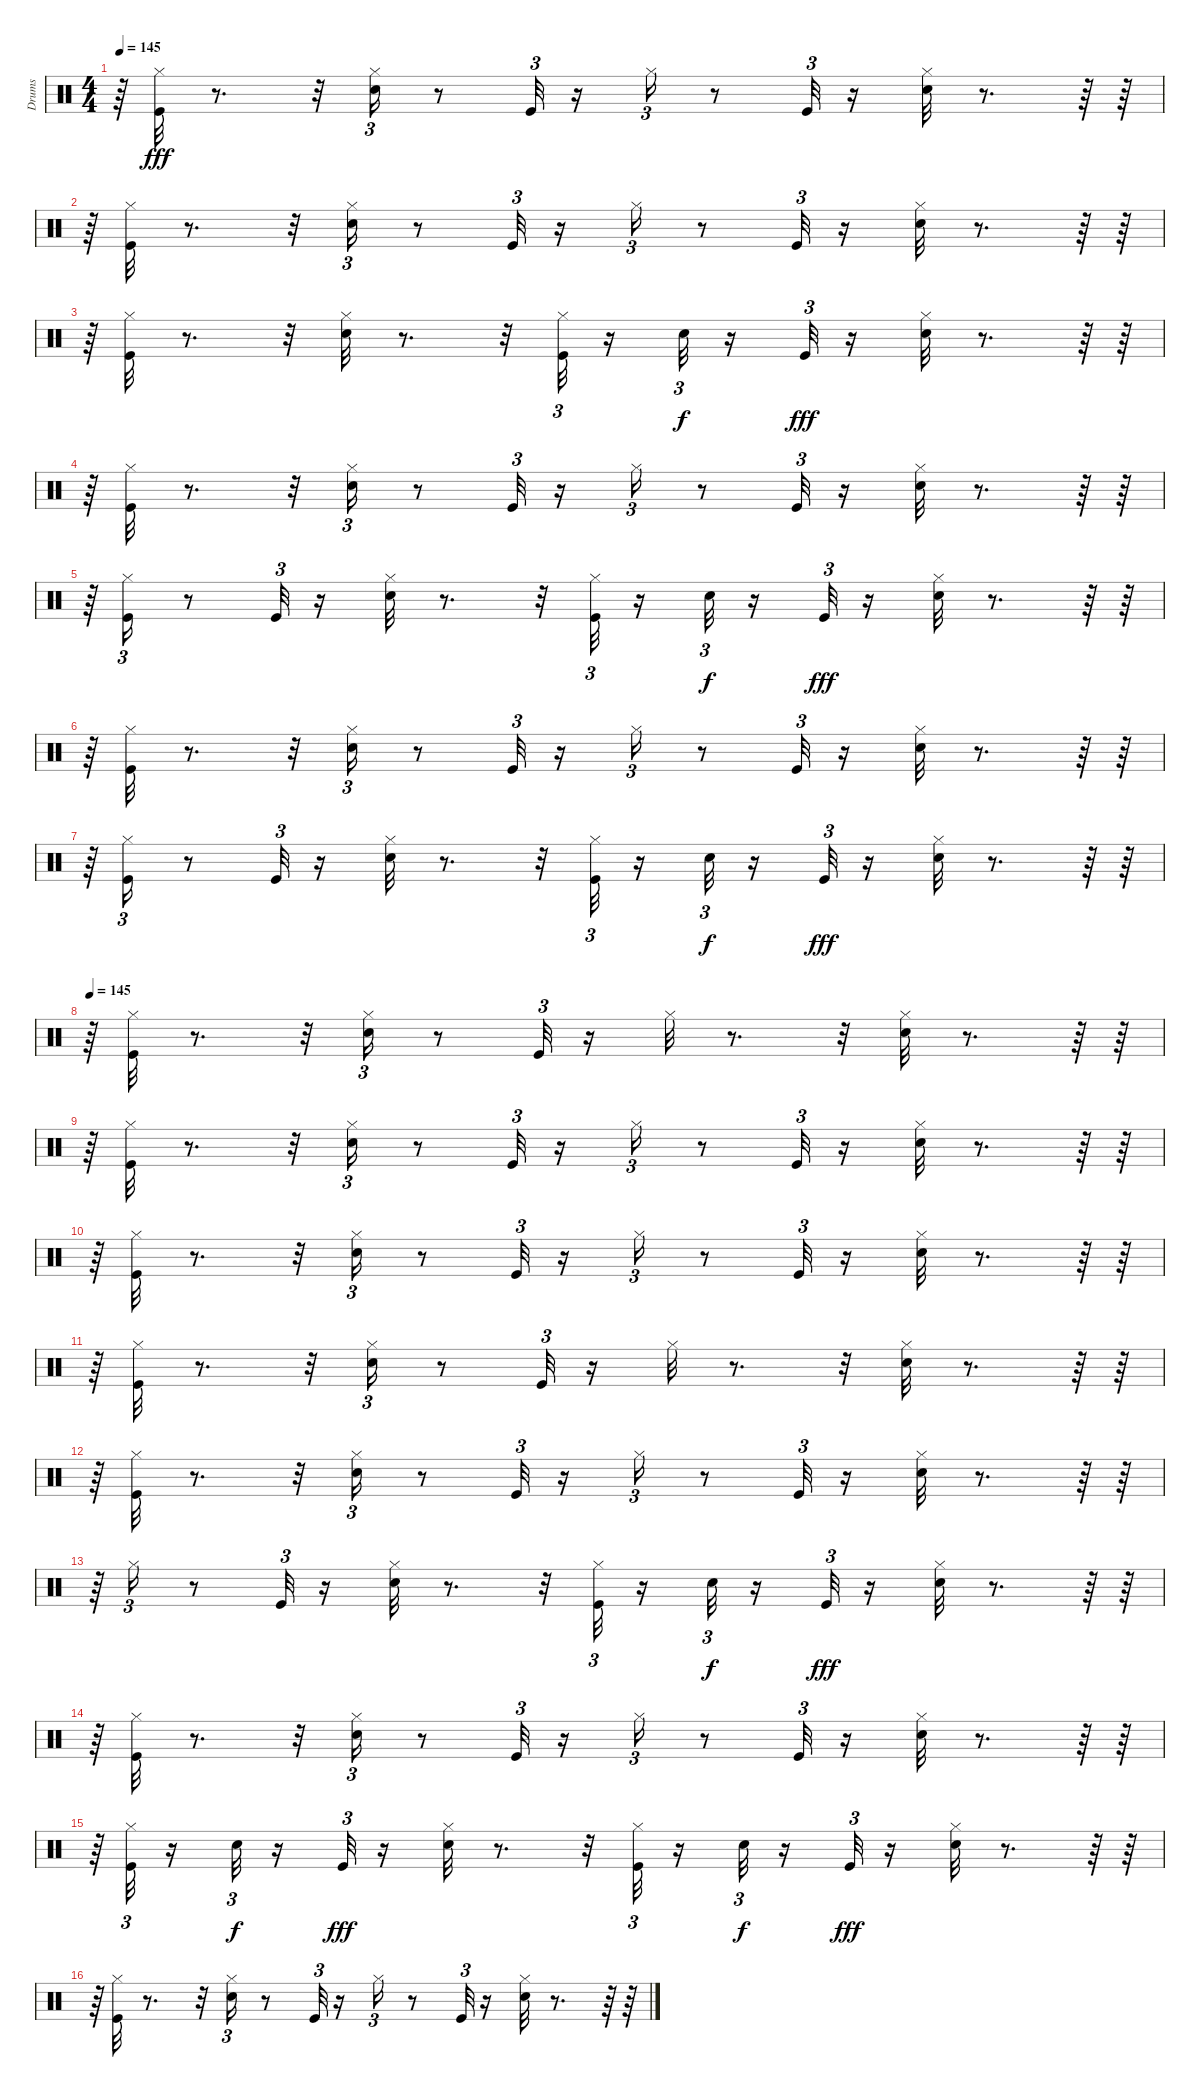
\track ("Drums" "Drums") {instrument percussion}
\staff {score}
\articulation defaults
\ts (4 4)
\tempo 145
\clef neutral
\ks c
r.64{dy fff} ("Kick (hit)" "Hi-Hat (closed)").32 r.8{d} r.32 ("Electric Snare (hit)" "Hi-Hat (closed)").16{tu (3 2)} r.8 "Kick (hit)".32{tu (3 2)} r.16 "Hi-Hat (closed)".16{tu (3 2)} r.8 "Kick (hit)".32{tu (3 2)} r.16 ("Electric Snare (hit)" "Hi-Hat (closed)").32 r.8{d} r.64 r.64 |
r.64 ("Kick (hit)" "Hi-Hat (closed)").32 r.8{d} r.32 ("Electric Snare (hit)" "Hi-Hat (closed)").16{tu (3 2)} r.8 "Kick (hit)".32{tu (3 2)} r.16 "Hi-Hat (closed)".16{tu (3 2)} r.8 "Kick (hit)".32{tu (3 2)} r.16 ("Electric Snare (hit)" "Hi-Hat (closed)").32 r.8{d} r.64 r.64 |
r.64 ("Kick (hit)" "Hi-Hat (closed)").32 r.8{d} r.32 ("Electric Snare (hit)" "Hi-Hat (closed)").32 r.8{d} r.32 ("Kick (hit)" "Hi-Hat (closed)").32{tu (3 2)} r.16 "Electric Snare (hit)".32{tu (3 2) dy f} r.16 "Kick (hit)".32{tu (3 2) dy fff} r.16 ("Electric Snare (hit)" "Hi-Hat (closed)").32 r.8{d} r.64 r.64 |
r.64 ("Kick (hit)" "Hi-Hat (closed)").32 r.8{d} r.32 ("Electric Snare (hit)" "Hi-Hat (closed)").16{tu (3 2)} r.8 "Kick (hit)".32{tu (3 2)} r.16 "Hi-Hat (closed)".16{tu (3 2)} r.8 "Kick (hit)".32{tu (3 2)} r.16 ("Electric Snare (hit)" "Hi-Hat (closed)").32 r.8{d} r.64 r.64 |
r.64 ("Kick (hit)" "Hi-Hat (closed)").16{tu (3 2)} r.8 "Kick (hit)".32{tu (3 2)} r.16 ("Electric Snare (hit)" "Hi-Hat (closed)").32 r.8{d} r.32 ("Kick (hit)" "Hi-Hat (closed)").32{tu (3 2)} r.16 "Electric Snare (hit)".32{tu (3 2) dy f} r.16 "Kick (hit)".32{tu (3 2) dy fff} r.16 ("Electric Snare (hit)" "Hi-Hat (closed)").32 r.8{d} r.64 r.64 |
r.64 ("Kick (hit)" "Hi-Hat (closed)").32 r.8{d} r.32 ("Electric Snare (hit)" "Hi-Hat (closed)").16{tu (3 2)} r.8 "Kick (hit)".32{tu (3 2)} r.16 "Hi-Hat (closed)".16{tu (3 2)} r.8 "Kick (hit)".32{tu (3 2)} r.16 ("Electric Snare (hit)" "Hi-Hat (closed)").32 r.8{d} r.64 r.64 |
r.64 ("Kick (hit)" "Hi-Hat (closed)").16{tu (3 2)} r.8 "Kick (hit)".32{tu (3 2)} r.16 ("Electric Snare (hit)" "Hi-Hat (closed)").32 r.8{d} r.32 ("Kick (hit)" "Hi-Hat (closed)").32{tu (3 2)} r.16 "Electric Snare (hit)".32{tu (3 2) dy f} r.16 "Kick (hit)".32{tu (3 2) dy fff} r.16 ("Electric Snare (hit)" "Hi-Hat (closed)").32 r.8{d} r.64 r.64 |
\tempo 145
r.64 ("Kick (hit)" "Hi-Hat (closed)").32 r.8{d} r.32 ("Electric Snare (hit)" "Hi-Hat (closed)").16{tu (3 2)} r.8 "Kick (hit)".32{tu (3 2)} r.16 "Hi-Hat (closed)".32 r.8{d} r.32 ("Electric Snare (hit)" "Hi-Hat (closed)").32 r.8{d} r.64 r.64 |
r.64 ("Kick (hit)" "Hi-Hat (closed)").32 r.8{d} r.32 ("Electric Snare (hit)" "Hi-Hat (closed)").16{tu (3 2)} r.8 "Kick (hit)".32{tu (3 2)} r.16 "Hi-Hat (closed)".16{tu (3 2)} r.8 "Kick (hit)".32{tu (3 2)} r.16 ("Electric Snare (hit)" "Hi-Hat (closed)").32 r.8{d} r.64 r.64 |
r.64 ("Kick (hit)" "Hi-Hat (closed)").32 r.8{d} r.32 ("Electric Snare (hit)" "Hi-Hat (closed)").16{tu (3 2)} r.8 "Kick (hit)".32{tu (3 2)} r.16 "Hi-Hat (closed)".16{tu (3 2)} r.8 "Kick (hit)".32{tu (3 2)} r.16 ("Electric Snare (hit)" "Hi-Hat (closed)").32 r.8{d} r.64 r.64 |
r.64 ("Kick (hit)" "Hi-Hat (closed)").32 r.8{d} r.32 ("Electric Snare (hit)" "Hi-Hat (closed)").16{tu (3 2)} r.8 "Kick (hit)".32{tu (3 2)} r.16 "Hi-Hat (closed)".32 r.8{d} r.32 ("Electric Snare (hit)" "Hi-Hat (closed)").32 r.8{d} r.64 r.64 |
r.64 ("Kick (hit)" "Hi-Hat (closed)").32 r.8{d} r.32 ("Electric Snare (hit)" "Hi-Hat (closed)").16{tu (3 2)} r.8 "Kick (hit)".32{tu (3 2)} r.16 "Hi-Hat (closed)".16{tu (3 2)} r.8 "Kick (hit)".32{tu (3 2)} r.16 ("Electric Snare (hit)" "Hi-Hat (closed)").32 r.8{d} r.64 r.64 |
r.64 "Hi-Hat (closed)".16{tu (3 2)} r.8 "Kick (hit)".32{tu (3 2)} r.16 ("Electric Snare (hit)" "Hi-Hat (closed)").32 r.8{d} r.32 ("Kick (hit)" "Hi-Hat (closed)").32{tu (3 2)} r.16 "Electric Snare (hit)".32{tu (3 2) dy f} r.16 "Kick (hit)".32{tu (3 2) dy fff} r.16 ("Electric Snare (hit)" "Hi-Hat (closed)").32 r.8{d} r.64 r.64 |
r.64 ("Kick (hit)" "Hi-Hat (closed)").32 r.8{d} r.32 ("Electric Snare (hit)" "Hi-Hat (closed)").16{tu (3 2)} r.8 "Kick (hit)".32{tu (3 2)} r.16 "Hi-Hat (closed)".16{tu (3 2)} r.8 "Kick (hit)".32{tu (3 2)} r.16 ("Electric Snare (hit)" "Hi-Hat (closed)").32 r.8{d} r.64 r.64 |
r.64 ("Kick (hit)" "Hi-Hat (closed)").32{tu (3 2)} r.16 "Electric Snare (hit)".32{tu (3 2) dy f} r.16 "Kick (hit)".32{tu (3 2) dy fff} r.16 ("Electric Snare (hit)" "Hi-Hat (closed)").32 r.8{d} r.32 ("Kick (hit)" "Hi-Hat (closed)").32{tu (3 2)} r.16 "Electric Snare (hit)".32{tu (3 2) dy f} r.16 "Kick (hit)".32{tu (3 2) dy fff} r.16 ("Electric Snare (hit)" "Hi-Hat (closed)").32 r.8{d} r.64 r.64 |
r.64 ("Kick (hit)" "Hi-Hat (closed)").32 r.8{d} r.32 ("Electric Snare (hit)" "Hi-Hat (closed)").16{tu (3 2)} r.8 "Kick (hit)".32{tu (3 2)} r.16 "Hi-Hat (closed)".16{tu (3 2)} r.8 "Kick (hit)".32{tu (3 2)} r.16 ("Electric Snare (hit)" "Hi-Hat (closed)").32 r.8{d} r.64 r.64
